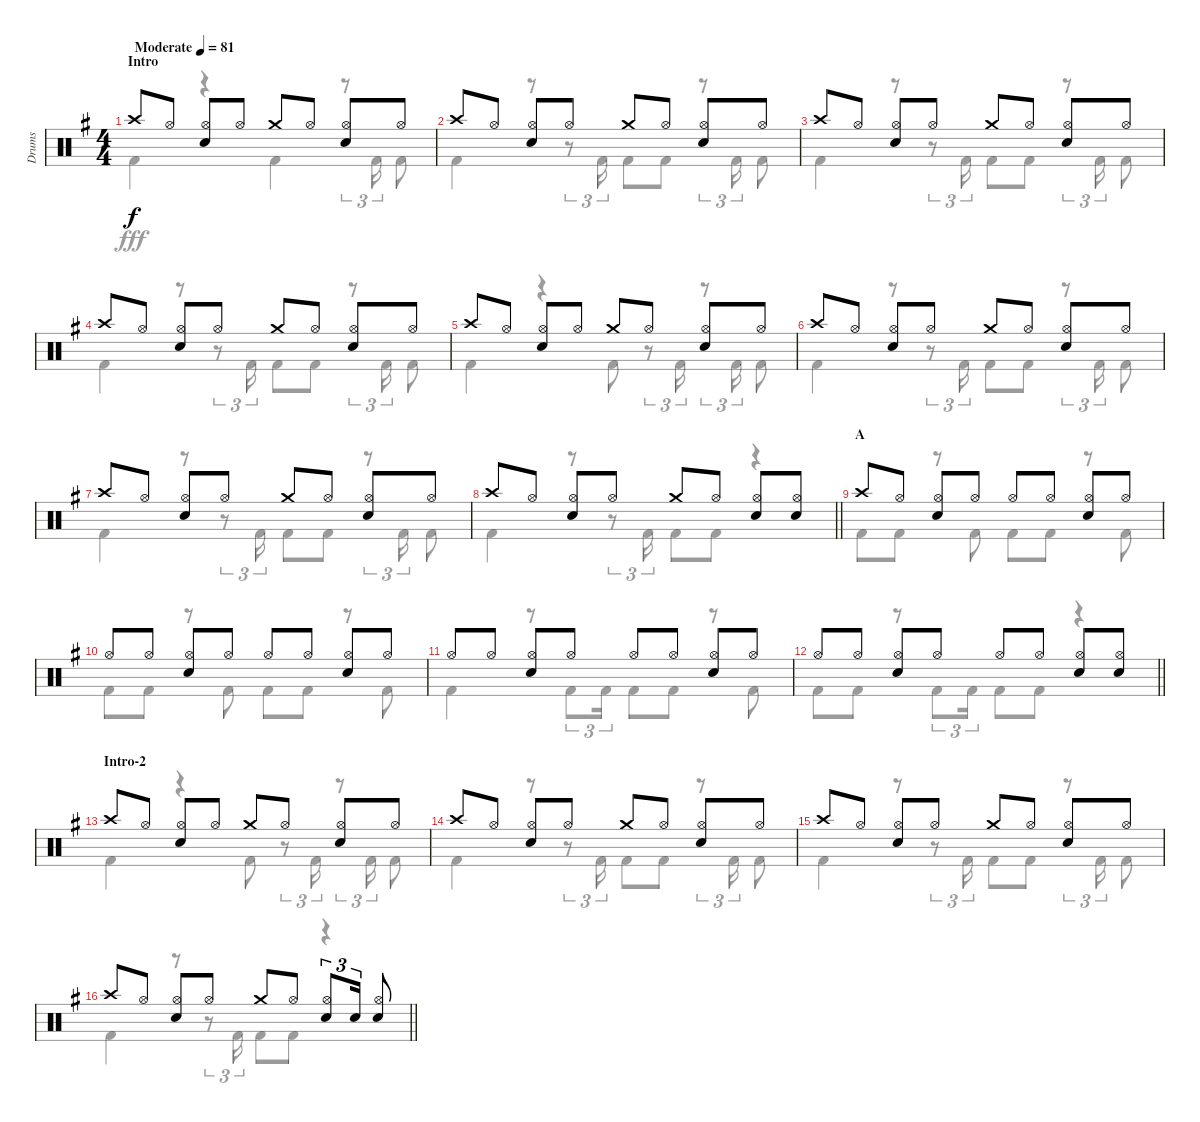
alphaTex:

\track ("Drums" "Drums") {instrument percussion}
\staff {score}
\articulation defaults
\voice
\ts (4 4)
\section ("" "Intro")
\tempo (81 "Moderate")
\clef neutral
\ks g "Crash high (hit)".8{dy f} "Hi-Hat (open)".8
("Hi-Hat (open)" "Snare (hit) 2").8 "Hi-Hat (open)".8 "Crash medium (hit)".8 "Hi-Hat (open)".8 ("Hi-Hat (open)" "Snare (hit) 2").8 "Hi-Hat (open)".8 |
"Crash high (hit)".8 "Hi-Hat (open)".8 ("Hi-Hat (open)" "Snare (hit) 2").8 "Hi-Hat (open)".8 "Crash medium (hit)".8 "Hi-Hat (open)".8 ("Hi-Hat (open)" "Snare (hit) 2").8 "Hi-Hat (open)".8 |
"Crash high (hit)".8 "Hi-Hat (open)".8 ("Hi-Hat (open)" "Snare (hit) 2").8 "Hi-Hat (open)".8 "Crash medium (hit)".8 "Hi-Hat (open)".8 ("Hi-Hat (open)" "Snare (hit) 2").8 "Hi-Hat (open)".8 |
"Crash high (hit)".8 "Hi-Hat (open)".8 ("Hi-Hat (open)" "Snare (hit) 2").8 "Hi-Hat (open)".8 "Crash medium (hit)".8 "Hi-Hat (open)".8 ("Hi-Hat (open)" "Snare (hit) 2").8 "Hi-Hat (open)".8 |
"Crash high (hit)".8 "Hi-Hat (open)".8 ("Hi-Hat (open)" "Snare (hit) 2").8 "Hi-Hat (open)".8 "Crash medium (hit)".8 "Hi-Hat (open)".8 ("Hi-Hat (open)" "Snare (hit) 2").8 "Hi-Hat (open)".8 |
"Crash high (hit)".8 "Hi-Hat (open)".8 ("Hi-Hat (open)" "Snare (hit) 2").8 "Hi-Hat (open)".8 "Crash medium (hit)".8 "Hi-Hat (open)".8 ("Hi-Hat (open)" "Snare (hit) 2").8 "Hi-Hat (open)".8 |
"Crash high (hit)".8 "Hi-Hat (open)".8 ("Hi-Hat (open)" "Snare (hit) 2").8 "Hi-Hat (open)".8 "Crash medium (hit)".8 "Hi-Hat (open)".8 ("Hi-Hat (open)" "Snare (hit) 2").8 "Hi-Hat (open)".8 |
\barLineRight lightlight "Crash high (hit)".8 "Hi-Hat (open)".8
("Hi-Hat (open)" "Snare (hit) 2").8 "Hi-Hat (open)".8 "Crash medium (hit)".8 "Hi-Hat (open)".8 ("Hi-Hat (open)" "Snare (hit) 2").8 ("Hi-Hat (open)" "Snare (hit) 2").8 |
\section ("" "A")
"Crash high (hit)".8 "Hi-Hat (open)".8 ("Hi-Hat (open)" "Snare (hit) 2").8 "Hi-Hat (open)".8 "Hi-Hat (open)".8 "Hi-Hat (open)".8 ("Hi-Hat (open)" "Snare (hit) 2").8 "Hi-Hat (open)".8 |
"Hi-Hat (open)".8 "Hi-Hat (open)".8 ("Hi-Hat (open)" "Snare (hit) 2").8 "Hi-Hat (open)".8 "Hi-Hat (open)".8 "Hi-Hat (open)".8 ("Hi-Hat (open)" "Snare (hit) 2").8 "Hi-Hat (open)".8 |
"Hi-Hat (open)".8 "Hi-Hat (open)".8 ("Hi-Hat (open)" "Snare (hit) 2").8 "Hi-Hat (open)".8 "Hi-Hat (open)".8 "Hi-Hat (open)".8 ("Hi-Hat (open)" "Snare (hit) 2").8 "Hi-Hat (open)".8 |
\barLineRight lightlight "Hi-Hat (open)".8 "Hi-Hat (open)".8
("Hi-Hat (open)" "Snare (hit) 2").8 "Hi-Hat (open)".8 "Hi-Hat (open)".8 "Hi-Hat (open)".8 ("Hi-Hat (open)" "Snare (hit) 2").8 ("Hi-Hat (open)" "Snare (hit) 2").8 |
\section ("" "Intro-2")
"Crash high (hit)".8 "Hi-Hat (open)".8 ("Hi-Hat (open)" "Snare (hit) 2").8 "Hi-Hat (open)".8 "Crash medium (hit)".8 "Hi-Hat (open)".8 ("Hi-Hat (open)" "Snare (hit) 2").8 "Hi-Hat (open)".8 |
"Crash high (hit)".8 "Hi-Hat (open)".8 ("Hi-Hat (open)" "Snare (hit) 2").8 "Hi-Hat (open)".8 "Crash medium (hit)".8 "Hi-Hat (open)".8 ("Hi-Hat (open)" "Snare (hit) 2").8 "Hi-Hat (open)".8 |
"Crash high (hit)".8 "Hi-Hat (open)".8 ("Hi-Hat (open)" "Snare (hit) 2").8 "Hi-Hat (open)".8 "Crash medium (hit)".8 "Hi-Hat (open)".8 ("Hi-Hat (open)" "Snare (hit) 2").8 "Hi-Hat (open)".8 |
\barLineRight lightlight "Crash high (hit)".8 "Hi-Hat (open)".8
("Hi-Hat (open)" "Snare (hit) 2").8 "Hi-Hat (open)".8 "Crash medium (hit)".8 "Hi-Hat (open)".8 ("Hi-Hat (open)" "Snare (hit) 2").8{tu (3 2)} "Snare (hit) 2".16{tu (3 2)} ("Hi-Hat (open)" "Snare (hit) 2").8
\voice
\clef neutral
\ottava regular
\simile none
\ks g "Kick (hit) 2".4{dy fff}
r.4 "Kick (hit) 2".4 r.8{tu (3 2)} "Kick (hit) 2".16{tu (3 2)} "Kick (hit) 2".8 |
"Kick (hit) 2".4 r.8 r.8{tu (3 2)} "Kick (hit) 2".16{tu (3 2)} "Kick (hit) 2".8 "Kick (hit) 2".8 r.8{tu (3 2)} "Kick (hit) 2".16{tu (3 2)} "Kick (hit) 2".8 |
"Kick (hit) 2".4 r.8 r.8{tu (3 2)} "Kick (hit) 2".16{tu (3 2)} "Kick (hit) 2".8 "Kick (hit) 2".8 r.8{tu (3 2)} "Kick (hit) 2".16{tu (3 2)} "Kick (hit) 2".8 |
"Kick (hit) 2".4 r.8 r.8{tu (3 2)} "Kick (hit) 2".16{tu (3 2)} "Kick (hit) 2".8 "Kick (hit) 2".8 r.8{tu (3 2)} "Kick (hit) 2".16{tu (3 2)} "Kick (hit) 2".8 |
"Kick (hit) 2".4 r.4 "Kick (hit) 2".8 r.8{tu (3 2)} "Kick (hit) 2".16{tu (3 2)} r.8{tu (3 2)} "Kick (hit) 2".16{tu (3 2)} "Kick (hit) 2".8 |
"Kick (hit) 2".4 r.8 r.8{tu (3 2)} "Kick (hit) 2".16{tu (3 2)} "Kick (hit) 2".8 "Kick (hit) 2".8 r.8{tu (3 2)} "Kick (hit) 2".16{tu (3 2)} "Kick (hit) 2".8 |
"Kick (hit) 2".4 r.8 r.8{tu (3 2)} "Kick (hit) 2".16{tu (3 2)} "Kick (hit) 2".8 "Kick (hit) 2".8 r.8{tu (3 2)} "Kick (hit) 2".16{tu (3 2)} "Kick (hit) 2".8 |
\barLineRight lightlight "Kick (hit) 2".4
r.8 r.8{tu (3 2)} "Kick (hit) 2".16{tu (3 2)} "Kick (hit) 2".8 "Kick (hit) 2".8 r.4 |
"Kick (hit) 2".8 "Kick (hit) 2".8 r.8 "Kick (hit) 2".8 "Kick (hit) 2".8 "Kick (hit) 2".8 r.8 "Kick (hit) 2".8 |
"Kick (hit) 2".8 "Kick (hit) 2".8 r.8 "Kick (hit) 2".8 "Kick (hit) 2".8 "Kick (hit) 2".8 r.8 "Kick (hit) 2".8 |
"Kick (hit) 2".4 r.8 "Kick (hit) 2".8{tu (3 2)} "Kick (hit) 2".16{tu (3 2)} "Kick (hit) 2".8 "Kick (hit) 2".8 r.8 "Kick (hit) 2".8 |
\barLineRight lightlight "Kick (hit) 2".8 "Kick (hit) 2".8
r.8 "Kick (hit) 2".8{tu (3 2)} "Kick (hit) 2".16{tu (3 2)} "Kick (hit) 2".8 "Kick (hit) 2".8 r.4 |
"Kick (hit) 2".4 r.4 "Kick (hit) 2".8 r.8{tu (3 2)} "Kick (hit) 2".16{tu (3 2)} r.8{tu (3 2)} "Kick (hit) 2".16{tu (3 2)} "Kick (hit) 2".8 |
"Kick (hit) 2".4 r.8 r.8{tu (3 2)} "Kick (hit) 2".16{tu (3 2)} "Kick (hit) 2".8 "Kick (hit) 2".8 r.8{tu (3 2)} "Kick (hit) 2".16{tu (3 2)} "Kick (hit) 2".8 |
"Kick (hit) 2".4 r.8 r.8{tu (3 2)} "Kick (hit) 2".16{tu (3 2)} "Kick (hit) 2".8 "Kick (hit) 2".8 r.8{tu (3 2)} "Kick (hit) 2".16{tu (3 2)} "Kick (hit) 2".8 |
\barLineRight lightlight "Kick (hit) 2".4
r.8 r.8{tu (3 2)} "Kick (hit) 2".16{tu (3 2)} "Kick (hit) 2".8 "Kick (hit) 2".8 r.4
